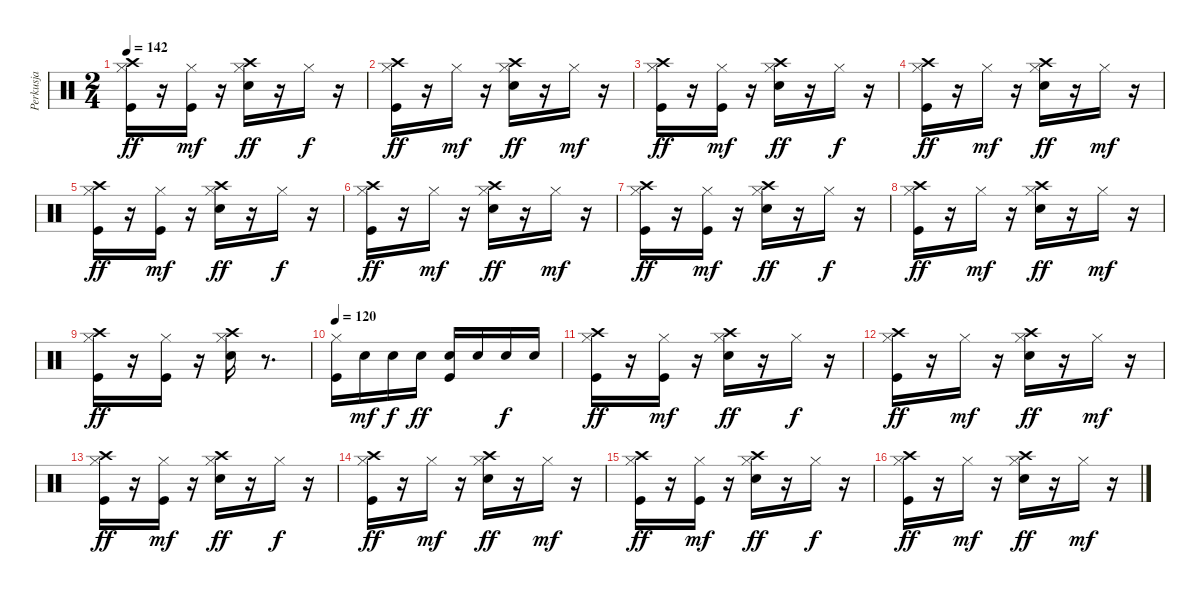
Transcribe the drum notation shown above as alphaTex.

\track ("Perkusja" "Perkusja") {instrument percussion}
\staff {score}
\articulation defaults
\ts (2 4)
\tempo 142
\clef neutral
\ks c
("Kick (hit)" "Hi-Hat (closed)" "Crash high (hit)").16{dy ff} r.16 ("Kick (hit)" "Hi-Hat (closed)").16{dy mf} r.16 ("Snare (hit) 2" "Hi-Hat (closed)" "Crash high (hit)").16{dy ff} r.16 "Hi-Hat (closed)".16{dy f} r.16 |
("Kick (hit)" "Hi-Hat (closed)" "Crash high (hit)").16{dy ff} r.16 "Hi-Hat (closed)".16{dy mf} r.16 ("Snare (hit) 2" "Hi-Hat (closed)" "Crash high (hit)").16{dy ff} r.16 "Hi-Hat (closed)".16{dy mf} r.16 |
("Kick (hit)" "Hi-Hat (closed)" "Crash high (hit)").16{dy ff} r.16 ("Kick (hit)" "Hi-Hat (closed)").16{dy mf} r.16 ("Snare (hit) 2" "Hi-Hat (closed)" "Crash high (hit)").16{dy ff} r.16 "Hi-Hat (closed)".16{dy f} r.16 |
("Kick (hit)" "Hi-Hat (closed)" "Crash high (hit)").16{dy ff} r.16 "Hi-Hat (closed)".16{dy mf} r.16 ("Snare (hit) 2" "Hi-Hat (closed)" "Crash high (hit)").16{dy ff} r.16 "Hi-Hat (closed)".16{dy mf} r.16 |
("Kick (hit)" "Hi-Hat (closed)" "Crash high (hit)").16{dy ff} r.16 ("Kick (hit)" "Hi-Hat (closed)").16{dy mf} r.16 ("Snare (hit) 2" "Hi-Hat (closed)" "Crash high (hit)").16{dy ff} r.16 "Hi-Hat (closed)".16{dy f} r.16 |
("Kick (hit)" "Hi-Hat (closed)" "Crash high (hit)").16{dy ff} r.16 "Hi-Hat (closed)".16{dy mf} r.16 ("Snare (hit) 2" "Hi-Hat (closed)" "Crash high (hit)").16{dy ff} r.16 "Hi-Hat (closed)".16{dy mf} r.16 |
("Kick (hit)" "Hi-Hat (closed)" "Crash high (hit)").16{dy ff} r.16 ("Kick (hit)" "Hi-Hat (closed)").16{dy mf} r.16 ("Snare (hit) 2" "Hi-Hat (closed)" "Crash high (hit)").16{dy ff} r.16 "Hi-Hat (closed)".16{dy f} r.16 |
("Kick (hit)" "Hi-Hat (closed)" "Crash high (hit)").16{dy ff} r.16 "Hi-Hat (closed)".16{dy mf} r.16 ("Snare (hit) 2" "Hi-Hat (closed)" "Crash high (hit)").16{dy ff} r.16 "Hi-Hat (closed)".16{dy mf} r.16 |
("Kick (hit)" "Hi-Hat (closed)" "Crash high (hit)").16{dy ff} r.16 ("Kick (hit)" "Hi-Hat (closed)").16 r.16 ("Snare (hit) 2" "Hi-Hat (closed)" "Crash high (hit)").16 r.8{d} |
\tempo 120
("Kick (hit)" "Hi-Hat (closed)").16 "Snare (hit) 2".16{dy mf} "Snare (hit) 2".16{dy f} "Snare (hit) 2".16{dy ff} ("Snare (hit) 2" "Kick (hit)").16 "Snare (hit) 2".16 "Snare (hit) 2".16{dy f} "Snare (hit) 2".16 |
("Kick (hit)" "Hi-Hat (closed)" "Crash high (hit)").16{dy ff} r.16 ("Kick (hit)" "Hi-Hat (closed)").16{dy mf} r.16 ("Snare (hit) 2" "Hi-Hat (closed)" "Crash high (hit)").16{dy ff} r.16 "Hi-Hat (closed)".16{dy f} r.16 |
("Kick (hit)" "Hi-Hat (closed)" "Crash high (hit)").16{dy ff} r.16 "Hi-Hat (closed)".16{dy mf} r.16 ("Snare (hit) 2" "Hi-Hat (closed)" "Crash high (hit)").16{dy ff} r.16 "Hi-Hat (closed)".16{dy mf} r.16 |
("Kick (hit)" "Hi-Hat (closed)" "Crash high (hit)").16{dy ff} r.16 ("Kick (hit)" "Hi-Hat (closed)").16{dy mf} r.16 ("Snare (hit) 2" "Hi-Hat (closed)" "Crash high (hit)").16{dy ff} r.16 "Hi-Hat (closed)".16{dy f} r.16 |
("Kick (hit)" "Hi-Hat (closed)" "Crash high (hit)").16{dy ff} r.16 "Hi-Hat (closed)".16{dy mf} r.16 ("Snare (hit) 2" "Hi-Hat (closed)" "Crash high (hit)").16{dy ff} r.16 "Hi-Hat (closed)".16{dy mf} r.16 |
("Kick (hit)" "Hi-Hat (closed)" "Crash high (hit)").16{dy ff} r.16 ("Kick (hit)" "Hi-Hat (closed)").16{dy mf} r.16 ("Snare (hit) 2" "Hi-Hat (closed)" "Crash high (hit)").16{dy ff} r.16 "Hi-Hat (closed)".16{dy f} r.16 |
("Kick (hit)" "Hi-Hat (closed)" "Crash high (hit)").16{dy ff} r.16 "Hi-Hat (closed)".16{dy mf} r.16 ("Snare (hit) 2" "Hi-Hat (closed)" "Crash high (hit)").16{dy ff} r.16 "Hi-Hat (closed)".16{dy mf} r.16
